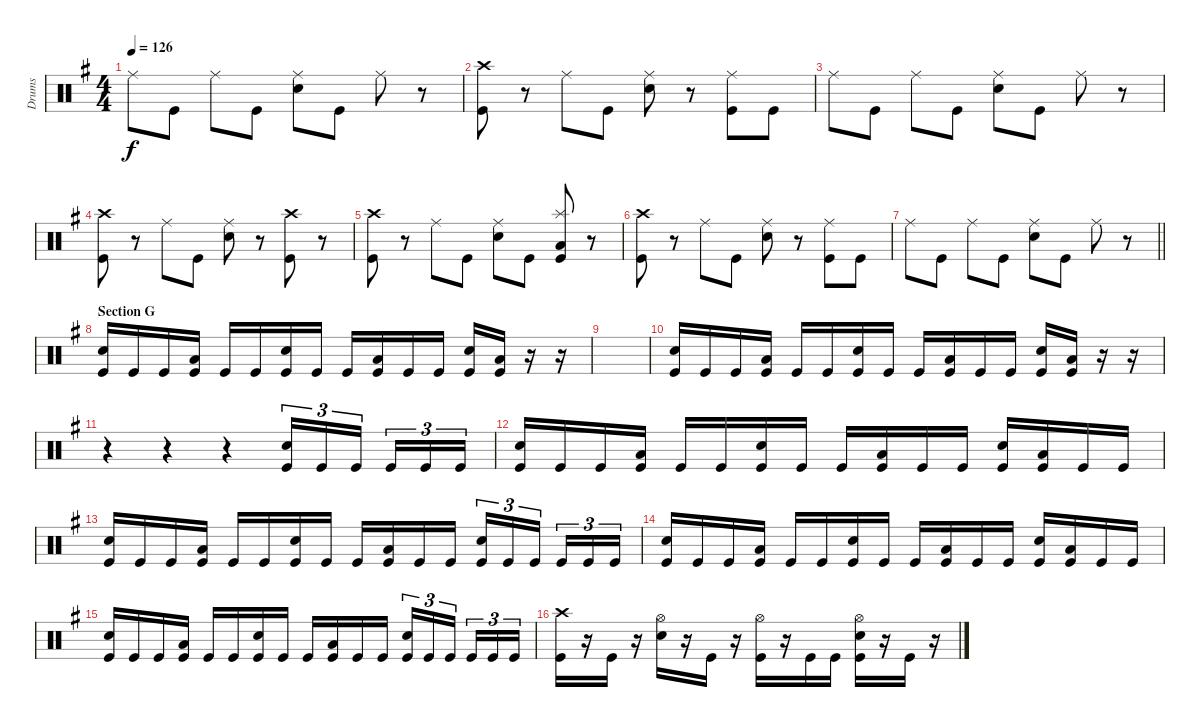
\track ("Drums" "Drums") {instrument percussion}
\staff {score}
\articulation defaults
\ts (4 4)
\tempo 126
\clef neutral
\ks eminor "Ride (middle)".8{dy f} "Kick (hit)".8 "Ride (middle)".8 "Kick (hit)".8
("Ride (middle)" "Snare (hit) 2").8 "Kick (hit)".8 "Ride (middle)".8 r.8 |
("Crash high (hit)" "Kick (hit)").8 r.8 "Ride (middle)".8 "Kick (hit)".8 ("Ride (middle)" "Snare (hit) 2").8 r.8 ("Ride (middle)" "Kick (hit)").8 "Kick (hit)".8 |
"Ride (middle)".8 "Kick (hit)".8 "Ride (middle)".8 "Kick (hit)".8 ("Ride (middle)" "Snare (hit) 2").8 "Kick (hit)".8 "Ride (middle)".8 r.8 |
("Crash high (hit)" "Kick (hit)").8 r.8 "Ride (middle)".8 "Kick (hit)".8 ("Ride (middle)" "Snare (hit) 2").8 r.8 ("Crash high (hit)" "Kick (hit)").8 r.8 |
("Crash high (hit)" "Kick (hit)").8 r.8 "Ride (middle)".8 "Kick (hit)".8 ("Ride (middle)" "Snare (hit) 2").8 "Kick (hit)".8 ("Splash (hit)" "Low Floor Tom (hit)" "Kick (hit)").8 r.8 |
("Crash high (hit)" "Kick (hit)").8 r.8 "Ride (middle)".8 "Kick (hit)".8 ("Ride (middle)" "Snare (hit) 2").8 r.8 ("Ride (middle)" "Kick (hit)").8 "Kick (hit)".8 |
\barLineRight lightlight "Ride (middle)".8 "Kick (hit)".8 "Ride (middle)".8 "Kick (hit)".8
("Ride (middle)" "Snare (hit) 2").8 "Kick (hit)".8 "Ride (middle)".8 r.8 |
\section ("" "Section G")
("Snare (hit) 2" "Kick (hit)").16 "Kick (hit)".16 "Kick (hit)".16 ("Low Floor Tom (hit)" "Kick (hit)").16 "Kick (hit)".16 "Kick (hit)".16 ("Snare (hit) 2" "Kick (hit)").16 "Kick (hit)".16 "Kick (hit)".16 ("Low Floor Tom (hit)" "Kick (hit)").16 "Kick (hit)".16 "Kick (hit)".16 ("Snare (hit) 2" "Kick (hit)").16 ("Low Floor Tom (hit)" "Kick (hit)").16 r.16 r.16 |
|
("Snare (hit) 2" "Kick (hit)").16 "Kick (hit)".16 "Kick (hit)".16 ("Low Floor Tom (hit)" "Kick (hit)").16 "Kick (hit)".16 "Kick (hit)".16 ("Snare (hit) 2" "Kick (hit)").16 "Kick (hit)".16 "Kick (hit)".16 ("Low Floor Tom (hit)" "Kick (hit)").16 "Kick (hit)".16 "Kick (hit)".16 ("Snare (hit) 2" "Kick (hit)").16 ("Low Floor Tom (hit)" "Kick (hit)").16 r.16 r.16 |
r.4 r.4 r.4 ("Snare (hit) 2" "Kick (hit)").16{tu (3 2)} "Kick (hit)".16{tu (3 2)} "Kick (hit)".16{tu (3 2) beam splitsecondary} "Kick (hit)".16{tu (3 2)} "Kick (hit)".16{tu (3 2)} "Kick (hit)".16{tu (3 2)} |
("Snare (hit) 2" "Kick (hit)").16 "Kick (hit)".16 "Kick (hit)".16 ("Low Floor Tom (hit)" "Kick (hit)").16 "Kick (hit)".16 "Kick (hit)".16 ("Snare (hit) 2" "Kick (hit)").16 "Kick (hit)".16 "Kick (hit)".16 ("Low Floor Tom (hit)" "Kick (hit)").16 "Kick (hit)".16 "Kick (hit)".16 ("Snare (hit) 2" "Kick (hit)").16 ("Low Floor Tom (hit)" "Kick (hit)").16 "Kick (hit)".16 "Kick (hit)".16 |
("Snare (hit) 2" "Kick (hit)").16 "Kick (hit)".16 "Kick (hit)".16 ("Low Floor Tom (hit)" "Kick (hit)").16 "Kick (hit)".16 "Kick (hit)".16 ("Snare (hit) 2" "Kick (hit)").16 "Kick (hit)".16 "Kick (hit)".16 ("Low Floor Tom (hit)" "Kick (hit)").16 "Kick (hit)".16 "Kick (hit)".16 ("Snare (hit) 2" "Kick (hit)").16{tu (3 2)} "Kick (hit)".16{tu (3 2)} "Kick (hit)".16{tu (3 2) beam splitsecondary} "Kick (hit)".16{tu (3 2)} "Kick (hit)".16{tu (3 2)} "Kick (hit)".16{tu (3 2)} |
("Snare (hit) 2" "Kick (hit)").16 "Kick (hit)".16 "Kick (hit)".16 ("Low Floor Tom (hit)" "Kick (hit)").16 "Kick (hit)".16 "Kick (hit)".16 ("Snare (hit) 2" "Kick (hit)").16 "Kick (hit)".16 "Kick (hit)".16 ("Low Floor Tom (hit)" "Kick (hit)").16 "Kick (hit)".16 "Kick (hit)".16 ("Snare (hit) 2" "Kick (hit)").16 ("Low Floor Tom (hit)" "Kick (hit)").16 "Kick (hit)".16 "Kick (hit)".16 |
("Snare (hit) 2" "Kick (hit)").16 "Kick (hit)".16 "Kick (hit)".16 ("Low Floor Tom (hit)" "Kick (hit)").16 "Kick (hit)".16 "Kick (hit)".16 ("Snare (hit) 2" "Kick (hit)").16 "Kick (hit)".16 "Kick (hit)".16 ("Low Floor Tom (hit)" "Kick (hit)").16 "Kick (hit)".16 "Kick (hit)".16 ("Snare (hit) 2" "Kick (hit)").16{tu (3 2)} "Kick (hit)".16{tu (3 2)} "Kick (hit)".16{tu (3 2) beam splitsecondary} "Kick (hit)".16{tu (3 2)} "Kick (hit)".16{tu (3 2)} "Kick (hit)".16{tu (3 2)} |
("Crash high (hit)" "Kick (hit)").16 r.16 "Kick (hit)".16 r.16 ("Hi-Hat (open)" "Snare (hit) 2").16 r.16 "Kick (hit)".16 r.16 ("Hi-Hat (open)" "Kick (hit)").16 r.16 "Kick (hit)".16 "Kick (hit)".16 ("Hi-Hat (open)" "Snare (hit) 2" "Kick (hit)").16 r.16 "Kick (hit)".16 r.16
